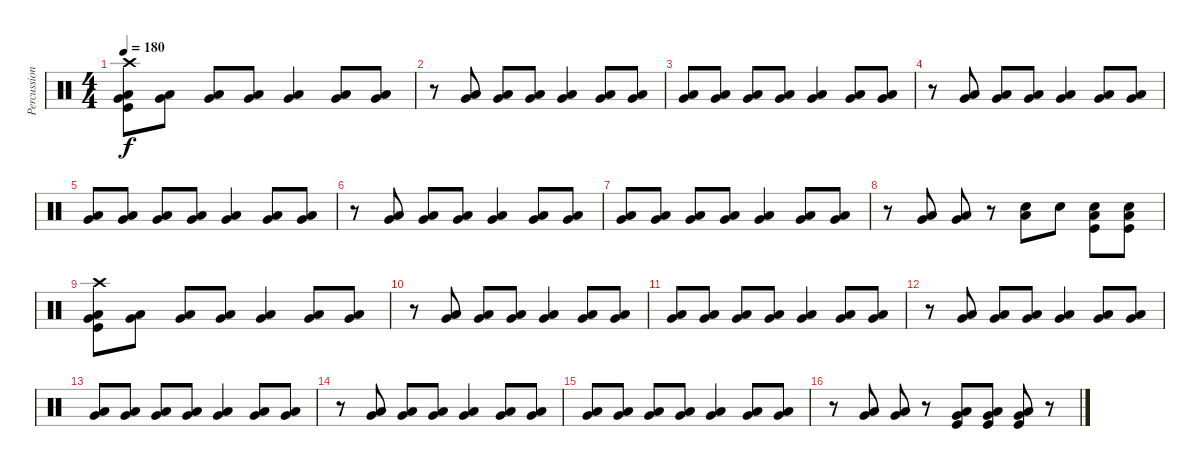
\track ("Percussion" "Percussion") {instrument percussion}
\staff {score}
\articulation defaults
\ts (4 4)
\tempo 180
\clef neutral
\ks c
("Crash high (hit)" "Very Low Tom (hit)" "Low Floor Tom (hit)" "Kick (hit)").8{dy f} ("Very Low Tom (hit)" "Low Floor Tom (hit)").8 ("Very Low Tom (hit)" "Low Floor Tom (hit)").8 ("Very Low Tom (hit)" "Low Floor Tom (hit)").8 ("Very Low Tom (hit)" "Low Floor Tom (hit)").4 ("Very Low Tom (hit)" "Low Floor Tom (hit)").8 ("Very Low Tom (hit)" "Low Floor Tom (hit)").8 |
r.8 ("Very Low Tom (hit)" "Low Floor Tom (hit)").8 ("Very Low Tom (hit)" "Low Floor Tom (hit)").8 ("Very Low Tom (hit)" "Low Floor Tom (hit)").8 ("Very Low Tom (hit)" "Low Floor Tom (hit)").4 ("Very Low Tom (hit)" "Low Floor Tom (hit)").8 ("Very Low Tom (hit)" "Low Floor Tom (hit)").8 |
("Very Low Tom (hit)" "Low Floor Tom (hit)").8 ("Very Low Tom (hit)" "Low Floor Tom (hit)").8 ("Very Low Tom (hit)" "Low Floor Tom (hit)").8 ("Very Low Tom (hit)" "Low Floor Tom (hit)").8 ("Very Low Tom (hit)" "Low Floor Tom (hit)").4 ("Very Low Tom (hit)" "Low Floor Tom (hit)").8 ("Very Low Tom (hit)" "Low Floor Tom (hit)").8 |
r.8 ("Very Low Tom (hit)" "Low Floor Tom (hit)").8 ("Very Low Tom (hit)" "Low Floor Tom (hit)").8 ("Very Low Tom (hit)" "Low Floor Tom (hit)").8 ("Very Low Tom (hit)" "Low Floor Tom (hit)").4 ("Very Low Tom (hit)" "Low Floor Tom (hit)").8 ("Very Low Tom (hit)" "Low Floor Tom (hit)").8 |
("Very Low Tom (hit)" "Low Floor Tom (hit)").8 ("Very Low Tom (hit)" "Low Floor Tom (hit)").8 ("Very Low Tom (hit)" "Low Floor Tom (hit)").8 ("Very Low Tom (hit)" "Low Floor Tom (hit)").8 ("Very Low Tom (hit)" "Low Floor Tom (hit)").4 ("Very Low Tom (hit)" "Low Floor Tom (hit)").8 ("Very Low Tom (hit)" "Low Floor Tom (hit)").8 |
r.8 ("Very Low Tom (hit)" "Low Floor Tom (hit)").8 ("Very Low Tom (hit)" "Low Floor Tom (hit)").8 ("Very Low Tom (hit)" "Low Floor Tom (hit)").8 ("Very Low Tom (hit)" "Low Floor Tom (hit)").4 ("Very Low Tom (hit)" "Low Floor Tom (hit)").8 ("Very Low Tom (hit)" "Low Floor Tom (hit)").8 |
("Very Low Tom (hit)" "Low Floor Tom (hit)").8 ("Very Low Tom (hit)" "Low Floor Tom (hit)").8 ("Very Low Tom (hit)" "Low Floor Tom (hit)").8 ("Very Low Tom (hit)" "Low Floor Tom (hit)").8 ("Very Low Tom (hit)" "Low Floor Tom (hit)").4 ("Very Low Tom (hit)" "Low Floor Tom (hit)").8 ("Very Low Tom (hit)" "Low Floor Tom (hit)").8 |
r.8 ("Very Low Tom (hit)" "Low Floor Tom (hit)").8 ("Very Low Tom (hit)" "Low Floor Tom (hit)").8 r.8 ("Snare (hit) 2" "Low Floor Tom (hit)").8 "Snare (hit) 2".8 ("Snare (hit) 2" "Low Floor Tom (hit)" "Kick (hit)").8 ("Snare (hit) 2" "Low Floor Tom (hit)" "Kick (hit)").8 |
("Crash high (hit)" "Very Low Tom (hit)" "Low Floor Tom (hit)" "Kick (hit)").8 ("Very Low Tom (hit)" "Low Floor Tom (hit)").8 ("Very Low Tom (hit)" "Low Floor Tom (hit)").8 ("Very Low Tom (hit)" "Low Floor Tom (hit)").8 ("Very Low Tom (hit)" "Low Floor Tom (hit)").4 ("Very Low Tom (hit)" "Low Floor Tom (hit)").8 ("Very Low Tom (hit)" "Low Floor Tom (hit)").8 |
r.8 ("Very Low Tom (hit)" "Low Floor Tom (hit)").8 ("Very Low Tom (hit)" "Low Floor Tom (hit)").8 ("Very Low Tom (hit)" "Low Floor Tom (hit)").8 ("Very Low Tom (hit)" "Low Floor Tom (hit)").4 ("Very Low Tom (hit)" "Low Floor Tom (hit)").8 ("Very Low Tom (hit)" "Low Floor Tom (hit)").8 |
("Very Low Tom (hit)" "Low Floor Tom (hit)").8 ("Very Low Tom (hit)" "Low Floor Tom (hit)").8 ("Very Low Tom (hit)" "Low Floor Tom (hit)").8 ("Very Low Tom (hit)" "Low Floor Tom (hit)").8 ("Very Low Tom (hit)" "Low Floor Tom (hit)").4 ("Very Low Tom (hit)" "Low Floor Tom (hit)").8 ("Very Low Tom (hit)" "Low Floor Tom (hit)").8 |
r.8 ("Very Low Tom (hit)" "Low Floor Tom (hit)").8 ("Very Low Tom (hit)" "Low Floor Tom (hit)").8 ("Very Low Tom (hit)" "Low Floor Tom (hit)").8 ("Very Low Tom (hit)" "Low Floor Tom (hit)").4 ("Very Low Tom (hit)" "Low Floor Tom (hit)").8 ("Very Low Tom (hit)" "Low Floor Tom (hit)").8 |
("Very Low Tom (hit)" "Low Floor Tom (hit)").8 ("Very Low Tom (hit)" "Low Floor Tom (hit)").8 ("Very Low Tom (hit)" "Low Floor Tom (hit)").8 ("Very Low Tom (hit)" "Low Floor Tom (hit)").8 ("Very Low Tom (hit)" "Low Floor Tom (hit)").4 ("Very Low Tom (hit)" "Low Floor Tom (hit)").8 ("Very Low Tom (hit)" "Low Floor Tom (hit)").8 |
r.8 ("Very Low Tom (hit)" "Low Floor Tom (hit)").8 ("Very Low Tom (hit)" "Low Floor Tom (hit)").8 ("Very Low Tom (hit)" "Low Floor Tom (hit)").8 ("Very Low Tom (hit)" "Low Floor Tom (hit)").4 ("Very Low Tom (hit)" "Low Floor Tom (hit)").8 ("Very Low Tom (hit)" "Low Floor Tom (hit)").8 |
("Very Low Tom (hit)" "Low Floor Tom (hit)").8 ("Very Low Tom (hit)" "Low Floor Tom (hit)").8 ("Very Low Tom (hit)" "Low Floor Tom (hit)").8 ("Very Low Tom (hit)" "Low Floor Tom (hit)").8 ("Very Low Tom (hit)" "Low Floor Tom (hit)").4 ("Very Low Tom (hit)" "Low Floor Tom (hit)").8 ("Very Low Tom (hit)" "Low Floor Tom (hit)").8 |
r.8 ("Very Low Tom (hit)" "Low Floor Tom (hit)").8 ("Very Low Tom (hit)" "Low Floor Tom (hit)").8 r.8 ("Very Low Tom (hit)" "Low Floor Tom (hit)" "Kick (hit)").8 ("Very Low Tom (hit)" "Low Floor Tom (hit)" "Kick (hit)").8 ("Very Low Tom (hit)" "Low Floor Tom (hit)" "Kick (hit)").8 r.8
